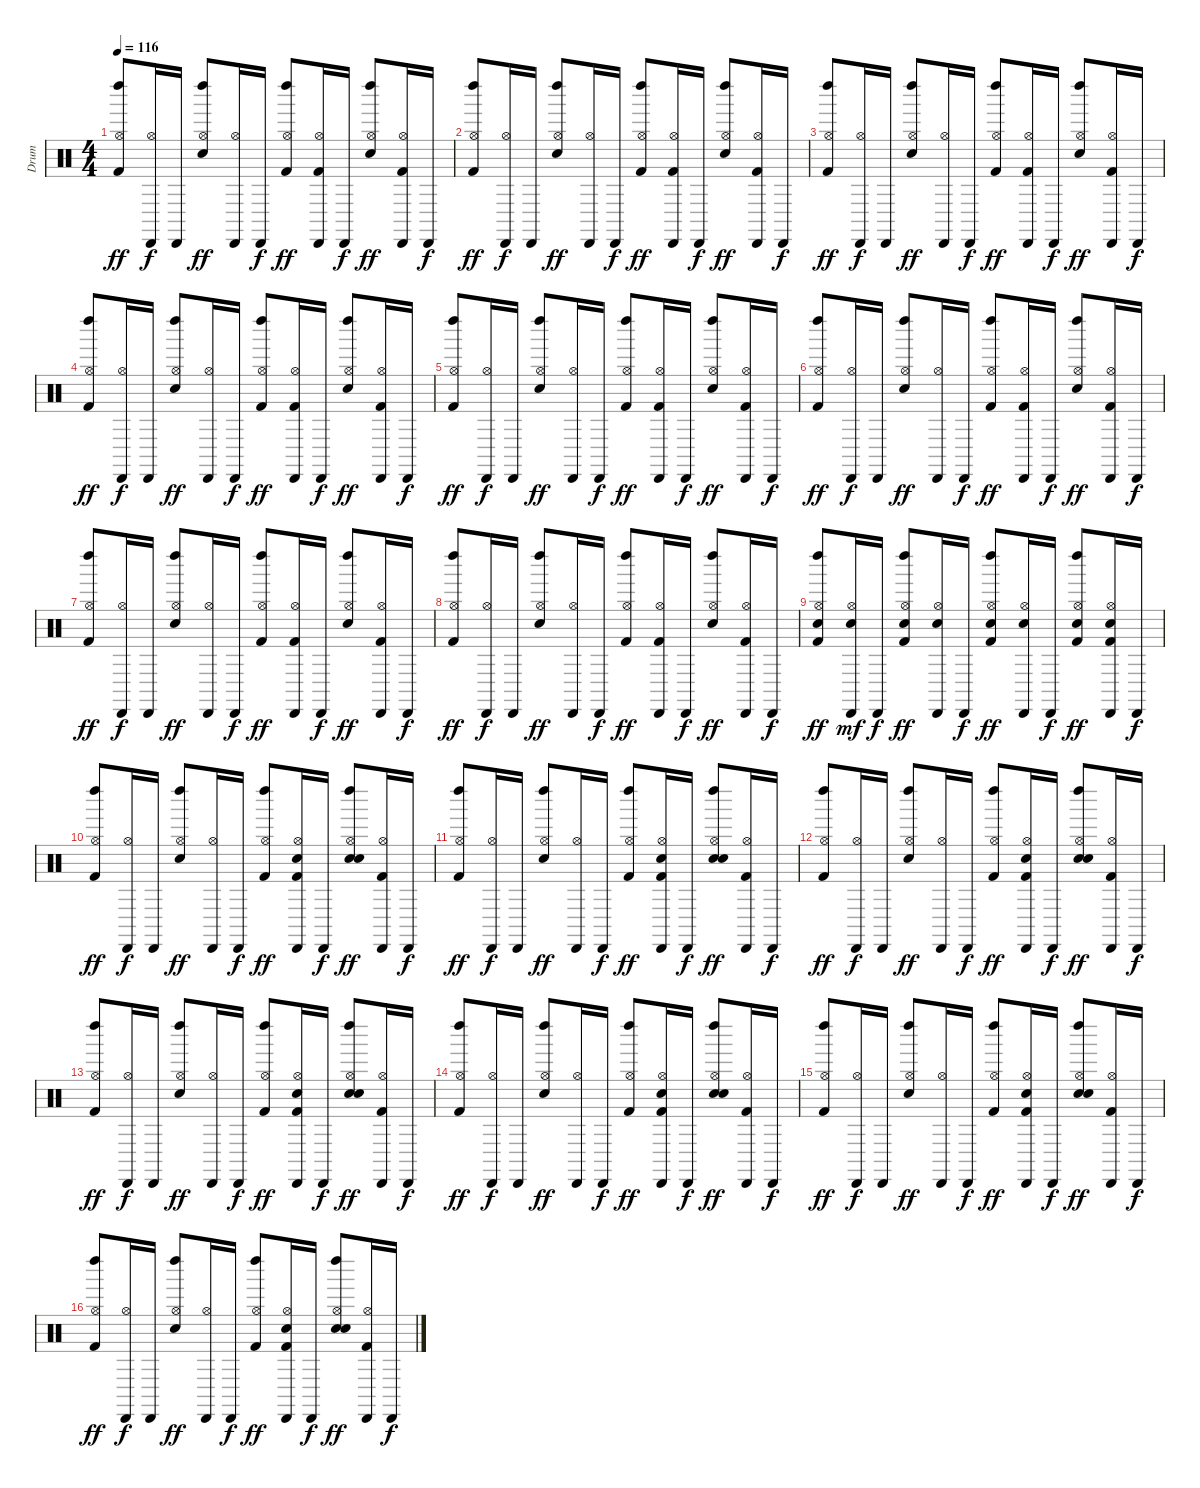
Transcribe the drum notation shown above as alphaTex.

\track ("Drum" "Drum") {instrument percussion}
\staff {score}
\articulation defaults
\ts (4 4)
\tempo 116
\clef neutral
\ks c
("Kick (hit) 2" "Hi-Hat (open)" "Left Maraca (hit)").8{dy ff} ("Hi-Hat (open)" "Cabasa (hit)").16{dy f} "Cabasa (hit)".16 ("Snare (hit) 2" "Hi-Hat (open)" "Left Maraca (hit)").8{dy ff} ("Hi-Hat (open)" "Cabasa (hit)").16 "Cabasa (hit)".16{dy f} ("Kick (hit) 2" "Hi-Hat (open)" "Left Maraca (hit)").8{dy ff} ("Kick (hit) 2" "Hi-Hat (open)" "Cabasa (hit)").16 "Cabasa (hit)".16{dy f} ("Snare (hit) 2" "Hi-Hat (open)" "Left Maraca (hit)").8{dy ff} ("Kick (hit) 2" "Hi-Hat (open)" "Cabasa (hit)").16 "Cabasa (hit)".16{dy f} |
("Kick (hit) 2" "Hi-Hat (open)" "Left Maraca (hit)").8{dy ff} ("Hi-Hat (open)" "Cabasa (hit)").16{dy f} "Cabasa (hit)".16 ("Snare (hit) 2" "Hi-Hat (open)" "Left Maraca (hit)").8{dy ff} ("Hi-Hat (open)" "Cabasa (hit)").16 "Cabasa (hit)".16{dy f} ("Kick (hit) 2" "Hi-Hat (open)" "Left Maraca (hit)").8{dy ff} ("Kick (hit) 2" "Hi-Hat (open)" "Cabasa (hit)").16 "Cabasa (hit)".16{dy f} ("Snare (hit) 2" "Hi-Hat (open)" "Left Maraca (hit)").8{dy ff} ("Kick (hit) 2" "Hi-Hat (open)" "Cabasa (hit)").16 "Cabasa (hit)".16{dy f} |
("Kick (hit) 2" "Hi-Hat (open)" "Left Maraca (hit)").8{dy ff} ("Hi-Hat (open)" "Cabasa (hit)").16{dy f} "Cabasa (hit)".16 ("Snare (hit) 2" "Hi-Hat (open)" "Left Maraca (hit)").8{dy ff} ("Hi-Hat (open)" "Cabasa (hit)").16 "Cabasa (hit)".16{dy f} ("Kick (hit) 2" "Hi-Hat (open)" "Left Maraca (hit)").8{dy ff} ("Kick (hit) 2" "Hi-Hat (open)" "Cabasa (hit)").16 "Cabasa (hit)".16{dy f} ("Snare (hit) 2" "Hi-Hat (open)" "Left Maraca (hit)").8{dy ff} ("Kick (hit) 2" "Hi-Hat (open)" "Cabasa (hit)").16 "Cabasa (hit)".16{dy f} |
("Kick (hit) 2" "Hi-Hat (open)" "Left Maraca (hit)").8{dy ff} ("Hi-Hat (open)" "Cabasa (hit)").16{dy f} "Cabasa (hit)".16 ("Snare (hit) 2" "Hi-Hat (open)" "Left Maraca (hit)").8{dy ff} ("Hi-Hat (open)" "Cabasa (hit)").16 "Cabasa (hit)".16{dy f} ("Kick (hit) 2" "Hi-Hat (open)" "Left Maraca (hit)").8{dy ff} ("Kick (hit) 2" "Hi-Hat (open)" "Cabasa (hit)").16 "Cabasa (hit)".16{dy f} ("Snare (hit) 2" "Hi-Hat (open)" "Left Maraca (hit)").8{dy ff} ("Kick (hit) 2" "Hi-Hat (open)" "Cabasa (hit)").16 "Cabasa (hit)".16{dy f} |
("Kick (hit) 2" "Hi-Hat (open)" "Left Maraca (hit)").8{dy ff} ("Hi-Hat (open)" "Cabasa (hit)").16{dy f} "Cabasa (hit)".16 ("Snare (hit) 2" "Hi-Hat (open)" "Left Maraca (hit)").8{dy ff} ("Hi-Hat (open)" "Cabasa (hit)").16 "Cabasa (hit)".16{dy f} ("Kick (hit) 2" "Hi-Hat (open)" "Left Maraca (hit)").8{dy ff} ("Kick (hit) 2" "Hi-Hat (open)" "Cabasa (hit)").16 "Cabasa (hit)".16{dy f} ("Snare (hit) 2" "Hi-Hat (open)" "Left Maraca (hit)").8{dy ff} ("Kick (hit) 2" "Hi-Hat (open)" "Cabasa (hit)").16 "Cabasa (hit)".16{dy f} |
("Kick (hit) 2" "Hi-Hat (open)" "Left Maraca (hit)").8{dy ff} ("Hi-Hat (open)" "Cabasa (hit)").16{dy f} "Cabasa (hit)".16 ("Snare (hit) 2" "Hi-Hat (open)" "Left Maraca (hit)").8{dy ff} ("Hi-Hat (open)" "Cabasa (hit)").16 "Cabasa (hit)".16{dy f} ("Kick (hit) 2" "Hi-Hat (open)" "Left Maraca (hit)").8{dy ff} ("Kick (hit) 2" "Hi-Hat (open)" "Cabasa (hit)").16 "Cabasa (hit)".16{dy f} ("Snare (hit) 2" "Hi-Hat (open)" "Left Maraca (hit)").8{dy ff} ("Kick (hit) 2" "Hi-Hat (open)" "Cabasa (hit)").16 "Cabasa (hit)".16{dy f} |
("Kick (hit) 2" "Hi-Hat (open)" "Left Maraca (hit)").8{dy ff} ("Hi-Hat (open)" "Cabasa (hit)").16{dy f} "Cabasa (hit)".16 ("Snare (hit) 2" "Hi-Hat (open)" "Left Maraca (hit)").8{dy ff} ("Hi-Hat (open)" "Cabasa (hit)").16 "Cabasa (hit)".16{dy f} ("Kick (hit) 2" "Hi-Hat (open)" "Left Maraca (hit)").8{dy ff} ("Kick (hit) 2" "Hi-Hat (open)" "Cabasa (hit)").16 "Cabasa (hit)".16{dy f} ("Snare (hit) 2" "Hi-Hat (open)" "Left Maraca (hit)").8{dy ff} ("Kick (hit) 2" "Hi-Hat (open)" "Cabasa (hit)").16 "Cabasa (hit)".16{dy f} |
("Kick (hit) 2" "Hi-Hat (open)" "Left Maraca (hit)").8{dy ff} ("Hi-Hat (open)" "Cabasa (hit)").16{dy f} "Cabasa (hit)".16 ("Snare (hit) 2" "Hi-Hat (open)" "Left Maraca (hit)").8{dy ff} ("Hi-Hat (open)" "Cabasa (hit)").16 "Cabasa (hit)".16{dy f} ("Kick (hit) 2" "Hi-Hat (open)" "Left Maraca (hit)").8{dy ff} ("Kick (hit) 2" "Hi-Hat (open)" "Cabasa (hit)").16 "Cabasa (hit)".16{dy f} ("Snare (hit) 2" "Hi-Hat (open)" "Left Maraca (hit)").8{dy ff} ("Kick (hit) 2" "Hi-Hat (open)" "Cabasa (hit)").16 "Cabasa (hit)".16{dy f} |
("Kick (hit) 2" "Hand Clap (hit)" "Hi-Hat (open)" "Left Maraca (hit)").8{dy ff} ("Hand Clap (hit)" "Hi-Hat (open)" "Cabasa (hit)").16{dy mf} "Cabasa (hit)".16{dy f} ("Kick (hit) 2" "Hand Clap (hit)" "Hi-Hat (open)" "Left Maraca (hit)").8{dy ff} ("Hand Clap (hit)" "Hi-Hat (open)" "Cabasa (hit)").16 "Cabasa (hit)".16{dy f} ("Kick (hit) 2" "Hand Clap (hit)" "Hi-Hat (open)" "Left Maraca (hit)").8{dy ff} ("Hand Clap (hit)" "Hi-Hat (open)" "Cabasa (hit)").16 "Cabasa (hit)".16{dy f} ("Kick (hit) 2" "Hand Clap (hit)" "Hi-Hat (open)" "Left Maraca (hit)").8{dy ff} ("Kick (hit) 2" "Hand Clap (hit)" "Hi-Hat (open)" "Cabasa (hit)").16 "Cabasa (hit)".16{dy f} |
("Kick (hit) 2" "Hi-Hat (open)" "Left Maraca (hit)").8{dy ff} ("Hi-Hat (open)" "Cabasa (hit)").16{dy f} "Cabasa (hit)".16 ("Snare (hit) 2" "Hi-Hat (open)" "Left Maraca (hit)").8{dy ff} ("Hi-Hat (open)" "Cabasa (hit)").16 "Cabasa (hit)".16{dy f} ("Kick (hit) 2" "Hi-Hat (open)" "Left Maraca (hit)").8{dy ff} ("Kick (hit) 2" "Hand Clap (hit)" "Hi-Hat (open)" "Cabasa (hit)").16 "Cabasa (hit)".16{dy f} ("Snare (hit) 2" "Hand Clap (hit)" "Hi-Hat (open)" "Left Maraca (hit)").8{dy ff} ("Kick (hit) 2" "Hi-Hat (open)" "Cabasa (hit)").16 "Cabasa (hit)".16{dy f} |
("Kick (hit) 2" "Hi-Hat (open)" "Left Maraca (hit)").8{dy ff} ("Hi-Hat (open)" "Cabasa (hit)").16{dy f} "Cabasa (hit)".16 ("Snare (hit) 2" "Hi-Hat (open)" "Left Maraca (hit)").8{dy ff} ("Hi-Hat (open)" "Cabasa (hit)").16 "Cabasa (hit)".16{dy f} ("Kick (hit) 2" "Hi-Hat (open)" "Left Maraca (hit)").8{dy ff} ("Kick (hit) 2" "Hand Clap (hit)" "Hi-Hat (open)" "Cabasa (hit)").16 "Cabasa (hit)".16{dy f} ("Snare (hit) 2" "Hand Clap (hit)" "Hi-Hat (open)" "Left Maraca (hit)").8{dy ff} ("Kick (hit) 2" "Hi-Hat (open)" "Cabasa (hit)").16 "Cabasa (hit)".16{dy f} |
("Kick (hit) 2" "Hi-Hat (open)" "Left Maraca (hit)").8{dy ff} ("Hi-Hat (open)" "Cabasa (hit)").16{dy f} "Cabasa (hit)".16 ("Snare (hit) 2" "Hi-Hat (open)" "Left Maraca (hit)").8{dy ff} ("Hi-Hat (open)" "Cabasa (hit)").16 "Cabasa (hit)".16{dy f} ("Kick (hit) 2" "Hi-Hat (open)" "Left Maraca (hit)").8{dy ff} ("Kick (hit) 2" "Hand Clap (hit)" "Hi-Hat (open)" "Cabasa (hit)").16 "Cabasa (hit)".16{dy f} ("Snare (hit) 2" "Hand Clap (hit)" "Hi-Hat (open)" "Left Maraca (hit)").8{dy ff} ("Kick (hit) 2" "Hi-Hat (open)" "Cabasa (hit)").16 "Cabasa (hit)".16{dy f} |
("Kick (hit) 2" "Hi-Hat (open)" "Left Maraca (hit)").8{dy ff} ("Hi-Hat (open)" "Cabasa (hit)").16{dy f} "Cabasa (hit)".16 ("Snare (hit) 2" "Hi-Hat (open)" "Left Maraca (hit)").8{dy ff} ("Hi-Hat (open)" "Cabasa (hit)").16 "Cabasa (hit)".16{dy f} ("Kick (hit) 2" "Hi-Hat (open)" "Left Maraca (hit)").8{dy ff} ("Kick (hit) 2" "Hand Clap (hit)" "Hi-Hat (open)" "Cabasa (hit)").16 "Cabasa (hit)".16{dy f} ("Snare (hit) 2" "Hand Clap (hit)" "Hi-Hat (open)" "Left Maraca (hit)").8{dy ff} ("Kick (hit) 2" "Hi-Hat (open)" "Cabasa (hit)").16 "Cabasa (hit)".16{dy f} |
("Kick (hit) 2" "Hi-Hat (open)" "Left Maraca (hit)").8{dy ff} ("Hi-Hat (open)" "Cabasa (hit)").16{dy f} "Cabasa (hit)".16 ("Snare (hit) 2" "Hi-Hat (open)" "Left Maraca (hit)").8{dy ff} ("Hi-Hat (open)" "Cabasa (hit)").16 "Cabasa (hit)".16{dy f} ("Kick (hit) 2" "Hi-Hat (open)" "Left Maraca (hit)").8{dy ff} ("Kick (hit) 2" "Hand Clap (hit)" "Hi-Hat (open)" "Cabasa (hit)").16 "Cabasa (hit)".16{dy f} ("Snare (hit) 2" "Hand Clap (hit)" "Hi-Hat (open)" "Left Maraca (hit)").8{dy ff} ("Kick (hit) 2" "Hi-Hat (open)" "Cabasa (hit)").16 "Cabasa (hit)".16{dy f} |
("Kick (hit) 2" "Hi-Hat (open)" "Left Maraca (hit)").8{dy ff} ("Hi-Hat (open)" "Cabasa (hit)").16{dy f} "Cabasa (hit)".16 ("Snare (hit) 2" "Hi-Hat (open)" "Left Maraca (hit)").8{dy ff} ("Hi-Hat (open)" "Cabasa (hit)").16 "Cabasa (hit)".16{dy f} ("Kick (hit) 2" "Hi-Hat (open)" "Left Maraca (hit)").8{dy ff} ("Kick (hit) 2" "Hand Clap (hit)" "Hi-Hat (open)" "Cabasa (hit)").16 "Cabasa (hit)".16{dy f} ("Snare (hit) 2" "Hand Clap (hit)" "Hi-Hat (open)" "Left Maraca (hit)").8{dy ff} ("Kick (hit) 2" "Hi-Hat (open)" "Cabasa (hit)").16 "Cabasa (hit)".16{dy f} |
("Kick (hit) 2" "Hi-Hat (open)" "Left Maraca (hit)").8{dy ff} ("Hi-Hat (open)" "Cabasa (hit)").16{dy f} "Cabasa (hit)".16 ("Snare (hit) 2" "Hi-Hat (open)" "Left Maraca (hit)").8{dy ff} ("Hi-Hat (open)" "Cabasa (hit)").16 "Cabasa (hit)".16{dy f} ("Kick (hit) 2" "Hi-Hat (open)" "Left Maraca (hit)").8{dy ff} ("Kick (hit) 2" "Hand Clap (hit)" "Hi-Hat (open)" "Cabasa (hit)").16 "Cabasa (hit)".16{dy f} ("Snare (hit) 2" "Hand Clap (hit)" "Hi-Hat (open)" "Left Maraca (hit)").8{dy ff} ("Kick (hit) 2" "Hi-Hat (open)" "Cabasa (hit)").16 "Cabasa (hit)".16{dy f}
